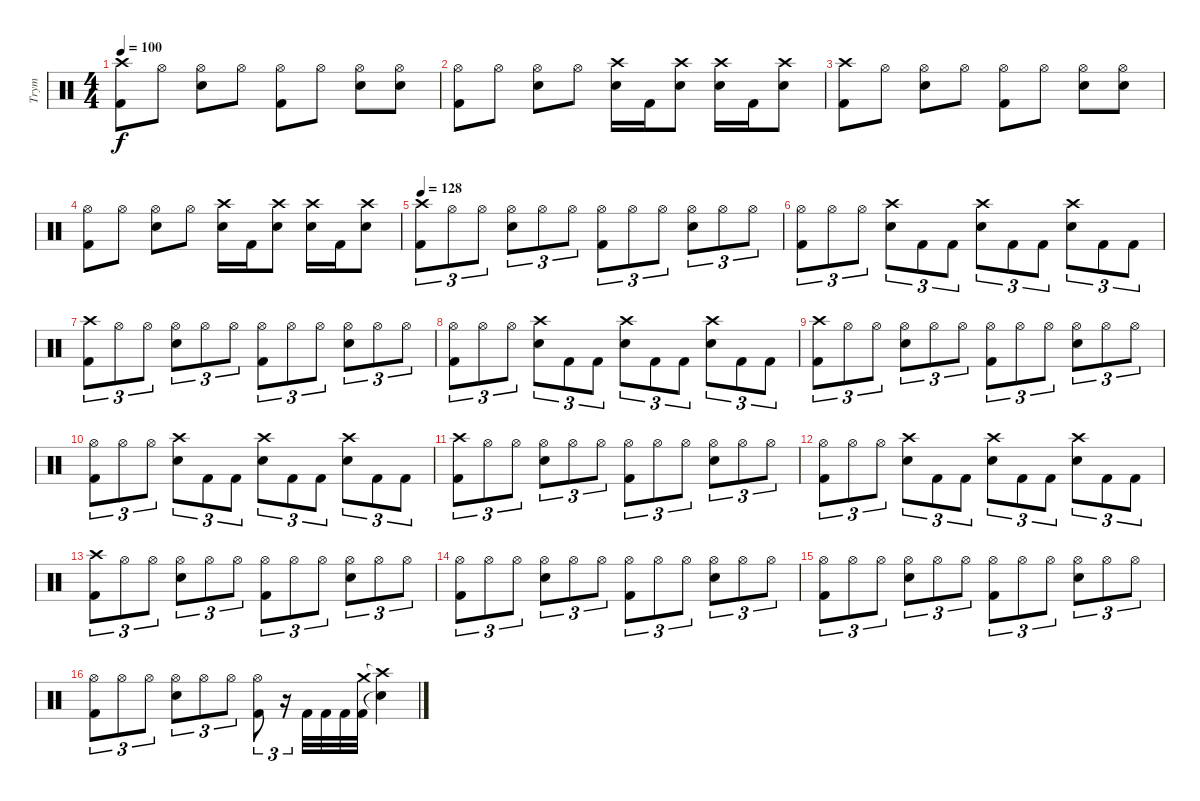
\track ("Trym" "Trym") {instrument percussion}
\staff {score}
\articulation defaults
\ts (4 4)
\tempo 100
\clef neutral
\ks c
("Crash high (hit)" "Kick (hit) 2").8{dy f} "Hi-Hat (open)".8 ("Hi-Hat (open)" "Electric Snare (hit)").8 "Hi-Hat (open)".8 ("Hi-Hat (open)" "Kick (hit) 2").8 "Hi-Hat (open)".8 ("Hi-Hat (open)" "Electric Snare (hit)").8 ("Hi-Hat (open)" "Electric Snare (hit)").8 |
("Hi-Hat (open)" "Kick (hit) 2").8 "Hi-Hat (open)".8 ("Hi-Hat (open)" "Electric Snare (hit)").8 "Hi-Hat (open)".8 ("Crash high (hit)" "Electric Snare (hit)").16 "Kick (hit) 2".16 ("Crash high (hit)" "Electric Snare (hit)").8 ("Crash high (hit)" "Electric Snare (hit)").16 "Kick (hit) 2".16 ("Crash high (hit)" "Electric Snare (hit)").8 |
("Crash high (hit)" "Kick (hit) 2").8 "Hi-Hat (open)".8 ("Hi-Hat (open)" "Electric Snare (hit)").8 "Hi-Hat (open)".8 ("Hi-Hat (open)" "Kick (hit) 2").8 "Hi-Hat (open)".8 ("Hi-Hat (open)" "Electric Snare (hit)").8 ("Hi-Hat (open)" "Electric Snare (hit)").8 |
("Hi-Hat (open)" "Kick (hit) 2").8 "Hi-Hat (open)".8 ("Hi-Hat (open)" "Electric Snare (hit)").8 "Hi-Hat (open)".8 ("Crash high (hit)" "Electric Snare (hit)").16 "Kick (hit) 2".16 ("Crash high (hit)" "Electric Snare (hit)").8 ("Crash high (hit)" "Electric Snare (hit)").16 "Kick (hit) 2".16 ("Crash high (hit)" "Electric Snare (hit)").8 |
\tempo 128
("Crash high (hit)" "Kick (hit) 2").8{tu (3 2)} "Hi-Hat (open)".8{tu (3 2)} "Hi-Hat (open)".8{tu (3 2)} ("Hi-Hat (open)" "Electric Snare (hit)").8{tu (3 2)} "Hi-Hat (open)".8{tu (3 2)} "Hi-Hat (open)".8{tu (3 2)} ("Hi-Hat (open)" "Kick (hit) 2").8{tu (3 2)} "Hi-Hat (open)".8{tu (3 2)} "Hi-Hat (open)".8{tu (3 2)} ("Hi-Hat (open)" "Electric Snare (hit)").8{tu (3 2)} "Hi-Hat (open)".8{tu (3 2)} "Hi-Hat (open)".8{tu (3 2)} |
("Hi-Hat (open)" "Kick (hit) 2").8{tu (3 2)} "Hi-Hat (open)".8{tu (3 2)} "Hi-Hat (open)".8{tu (3 2)} ("Crash high (hit)" "Electric Snare (hit)").8{tu (3 2)} "Kick (hit) 2".8{tu (3 2)} "Kick (hit) 2".8{tu (3 2)} ("Crash high (hit)" "Electric Snare (hit)").8{tu (3 2)} "Kick (hit) 2".8{tu (3 2)} "Kick (hit) 2".8{tu (3 2)} ("Crash high (hit)" "Electric Snare (hit)").8{tu (3 2)} "Kick (hit) 2".8{tu (3 2)} "Kick (hit) 2".8{tu (3 2)} |
("Crash high (hit)" "Kick (hit) 2").8{tu (3 2)} "Hi-Hat (open)".8{tu (3 2)} "Hi-Hat (open)".8{tu (3 2)} ("Hi-Hat (open)" "Electric Snare (hit)").8{tu (3 2)} "Hi-Hat (open)".8{tu (3 2)} "Hi-Hat (open)".8{tu (3 2)} ("Hi-Hat (open)" "Kick (hit) 2").8{tu (3 2)} "Hi-Hat (open)".8{tu (3 2)} "Hi-Hat (open)".8{tu (3 2)} ("Hi-Hat (open)" "Electric Snare (hit)").8{tu (3 2)} "Hi-Hat (open)".8{tu (3 2)} "Hi-Hat (open)".8{tu (3 2)} |
("Hi-Hat (open)" "Kick (hit) 2").8{tu (3 2)} "Hi-Hat (open)".8{tu (3 2)} "Hi-Hat (open)".8{tu (3 2)} ("Crash high (hit)" "Electric Snare (hit)").8{tu (3 2)} "Kick (hit) 2".8{tu (3 2)} "Kick (hit) 2".8{tu (3 2)} ("Crash high (hit)" "Electric Snare (hit)").8{tu (3 2)} "Kick (hit) 2".8{tu (3 2)} "Kick (hit) 2".8{tu (3 2)} ("Crash high (hit)" "Electric Snare (hit)").8{tu (3 2)} "Kick (hit) 2".8{tu (3 2)} "Kick (hit) 2".8{tu (3 2)} |
("Crash high (hit)" "Kick (hit) 2").8{tu (3 2)} "Hi-Hat (open)".8{tu (3 2)} "Hi-Hat (open)".8{tu (3 2)} ("Hi-Hat (open)" "Electric Snare (hit)").8{tu (3 2)} "Hi-Hat (open)".8{tu (3 2)} "Hi-Hat (open)".8{tu (3 2)} ("Hi-Hat (open)" "Kick (hit) 2").8{tu (3 2)} "Hi-Hat (open)".8{tu (3 2)} "Hi-Hat (open)".8{tu (3 2)} ("Hi-Hat (open)" "Electric Snare (hit)").8{tu (3 2)} "Hi-Hat (open)".8{tu (3 2)} "Hi-Hat (open)".8{tu (3 2)} |
("Hi-Hat (open)" "Kick (hit) 2").8{tu (3 2)} "Hi-Hat (open)".8{tu (3 2)} "Hi-Hat (open)".8{tu (3 2)} ("Crash high (hit)" "Electric Snare (hit)").8{tu (3 2)} "Kick (hit) 2".8{tu (3 2)} "Kick (hit) 2".8{tu (3 2)} ("Crash high (hit)" "Electric Snare (hit)").8{tu (3 2)} "Kick (hit) 2".8{tu (3 2)} "Kick (hit) 2".8{tu (3 2)} ("Crash high (hit)" "Electric Snare (hit)").8{tu (3 2)} "Kick (hit) 2".8{tu (3 2)} "Kick (hit) 2".8{tu (3 2)} |
("Crash high (hit)" "Kick (hit) 2").8{tu (3 2)} "Hi-Hat (open)".8{tu (3 2)} "Hi-Hat (open)".8{tu (3 2)} ("Hi-Hat (open)" "Electric Snare (hit)").8{tu (3 2)} "Hi-Hat (open)".8{tu (3 2)} "Hi-Hat (open)".8{tu (3 2)} ("Hi-Hat (open)" "Kick (hit) 2").8{tu (3 2)} "Hi-Hat (open)".8{tu (3 2)} "Hi-Hat (open)".8{tu (3 2)} ("Hi-Hat (open)" "Electric Snare (hit)").8{tu (3 2)} "Hi-Hat (open)".8{tu (3 2)} "Hi-Hat (open)".8{tu (3 2)} |
("Hi-Hat (open)" "Kick (hit) 2").8{tu (3 2)} "Hi-Hat (open)".8{tu (3 2)} "Hi-Hat (open)".8{tu (3 2)} ("Crash high (hit)" "Electric Snare (hit)").8{tu (3 2)} "Kick (hit) 2".8{tu (3 2)} "Kick (hit) 2".8{tu (3 2)} ("Crash high (hit)" "Electric Snare (hit)").8{tu (3 2)} "Kick (hit) 2".8{tu (3 2)} "Kick (hit) 2".8{tu (3 2)} ("Crash high (hit)" "Electric Snare (hit)").8{tu (3 2)} "Kick (hit) 2".8{tu (3 2)} "Kick (hit) 2".8{tu (3 2)} |
("Crash high (hit)" "Kick (hit) 2").8{tu (3 2)} "Hi-Hat (open)".8{tu (3 2)} "Hi-Hat (open)".8{tu (3 2)} ("Hi-Hat (open)" "Electric Snare (hit)").8{tu (3 2)} "Hi-Hat (open)".8{tu (3 2)} "Hi-Hat (open)".8{tu (3 2)} ("Hi-Hat (open)" "Kick (hit) 2").8{tu (3 2)} "Hi-Hat (open)".8{tu (3 2)} "Hi-Hat (open)".8{tu (3 2)} ("Hi-Hat (open)" "Electric Snare (hit)").8{tu (3 2)} "Hi-Hat (open)".8{tu (3 2)} "Hi-Hat (open)".8{tu (3 2)} |
("Hi-Hat (open)" "Kick (hit) 2").8{tu (3 2)} "Hi-Hat (open)".8{tu (3 2)} "Hi-Hat (open)".8{tu (3 2)} ("Hi-Hat (open)" "Electric Snare (hit)").8{tu (3 2)} "Hi-Hat (open)".8{tu (3 2)} "Hi-Hat (open)".8{tu (3 2)} ("Hi-Hat (open)" "Kick (hit) 2").8{tu (3 2)} "Hi-Hat (open)".8{tu (3 2)} "Hi-Hat (open)".8{tu (3 2)} ("Hi-Hat (open)" "Electric Snare (hit)").8{tu (3 2)} "Hi-Hat (open)".8{tu (3 2)} "Hi-Hat (open)".8{tu (3 2)} |
("Hi-Hat (open)" "Kick (hit) 2").8{tu (3 2)} "Hi-Hat (open)".8{tu (3 2)} "Hi-Hat (open)".8{tu (3 2)} ("Hi-Hat (open)" "Electric Snare (hit)").8{tu (3 2)} "Hi-Hat (open)".8{tu (3 2)} "Hi-Hat (open)".8{tu (3 2)} ("Hi-Hat (open)" "Kick (hit) 2").8{tu (3 2)} "Hi-Hat (open)".8{tu (3 2)} "Hi-Hat (open)".8{tu (3 2)} ("Hi-Hat (open)" "Electric Snare (hit)").8{tu (3 2)} "Hi-Hat (open)".8{tu (3 2)} "Hi-Hat (open)".8{tu (3 2)} |
("Hi-Hat (open)" "Kick (hit) 2").8{tu (3 2)} "Hi-Hat (open)".8{tu (3 2)} "Hi-Hat (open)".8{tu (3 2)} ("Hi-Hat (open)" "Electric Snare (hit)").8{tu (3 2)} "Hi-Hat (open)".8{tu (3 2)} "Hi-Hat (open)".8{tu (3 2)} ("Hi-Hat (open)" "Kick (hit) 2").8{tu (3 2)} r.16{tu (3 2)} "Kick (hit) 2".32 "Kick (hit) 2".32 "Kick (hit) 2".32 ("Crash medium (hit)" "Kick (hit) 2").32 ("Crash high (hit)"{t} "Snare (hit)"{t}).4
